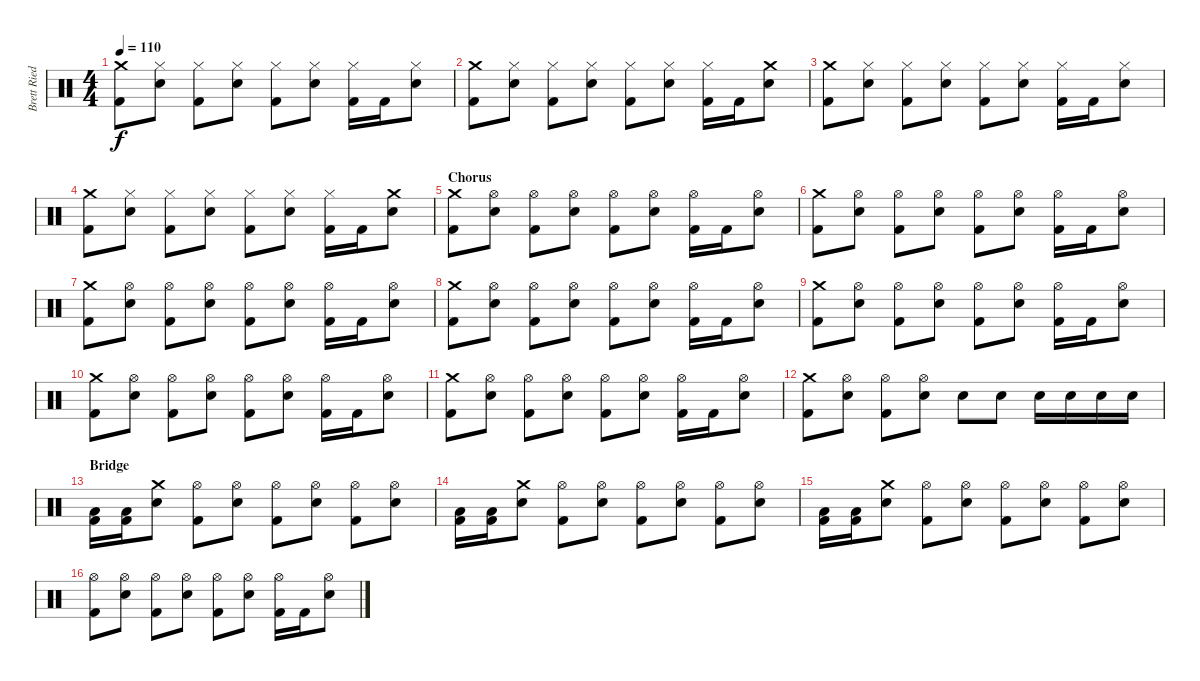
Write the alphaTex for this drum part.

\track ("Brett Ried" "Brett Ried") {instrument percussion}
\staff {score}
\articulation defaults
\ts (4 4)
\tempo 110
\clef neutral
\ks c
("Crash medium (hit)" "Kick (hit) 2").8{dy f} ("Hi-Hat (closed)" "Snare (hit) 2").8 ("Hi-Hat (closed)" "Kick (hit) 2").8 ("Hi-Hat (closed)" "Snare (hit) 2").8 ("Hi-Hat (closed)" "Kick (hit) 2").8 ("Hi-Hat (closed)" "Snare (hit) 2").8 ("Hi-Hat (closed)" "Kick (hit) 2").16 "Kick (hit) 2".16 ("Hi-Hat (closed)" "Snare (hit) 2").8 |
("Crash medium (hit)" "Kick (hit) 2").8 ("Hi-Hat (closed)" "Snare (hit) 2").8 ("Hi-Hat (closed)" "Kick (hit) 2").8 ("Hi-Hat (closed)" "Snare (hit) 2").8 ("Hi-Hat (closed)" "Kick (hit) 2").8 ("Hi-Hat (closed)" "Snare (hit) 2").8 ("Hi-Hat (closed)" "Kick (hit) 2").16 "Kick (hit) 2".16 ("Crash medium (hit)" "Snare (hit) 2").8 |
("Crash medium (hit)" "Kick (hit) 2").8 ("Hi-Hat (closed)" "Snare (hit) 2").8 ("Hi-Hat (closed)" "Kick (hit) 2").8 ("Hi-Hat (closed)" "Snare (hit) 2").8 ("Hi-Hat (closed)" "Kick (hit) 2").8 ("Hi-Hat (closed)" "Snare (hit) 2").8 ("Hi-Hat (closed)" "Kick (hit) 2").16 "Kick (hit) 2".16 ("Hi-Hat (closed)" "Snare (hit) 2").8 |
("Crash medium (hit)" "Kick (hit) 2").8 ("Hi-Hat (closed)" "Snare (hit) 2").8 ("Hi-Hat (closed)" "Kick (hit) 2").8 ("Hi-Hat (closed)" "Snare (hit) 2").8 ("Hi-Hat (closed)" "Kick (hit) 2").8 ("Hi-Hat (closed)" "Snare (hit) 2").8 ("Hi-Hat (closed)" "Kick (hit) 2").16 "Kick (hit) 2".16 ("Crash medium (hit)" "Snare (hit) 2").8 |
\section ("" "Chorus")
("Crash medium (hit)" "Kick (hit) 2").8 ("Hi-Hat (open)" "Snare (hit) 2").8 ("Hi-Hat (open)" "Kick (hit) 2").8 ("Hi-Hat (open)" "Snare (hit) 2").8 ("Hi-Hat (open)" "Kick (hit) 2").8 ("Hi-Hat (open)" "Snare (hit) 2").8 ("Hi-Hat (open)" "Kick (hit) 2").16 "Kick (hit) 2".16 ("Hi-Hat (open)" "Snare (hit) 2").8 |
("Crash medium (hit)" "Kick (hit) 2").8 ("Hi-Hat (open)" "Snare (hit) 2").8 ("Hi-Hat (open)" "Kick (hit) 2").8 ("Hi-Hat (open)" "Snare (hit) 2").8 ("Hi-Hat (open)" "Kick (hit) 2").8 ("Hi-Hat (open)" "Snare (hit) 2").8 ("Hi-Hat (open)" "Kick (hit) 2").16 "Kick (hit) 2".16 ("Hi-Hat (open)" "Snare (hit) 2").8 |
("Crash medium (hit)" "Kick (hit) 2").8 ("Hi-Hat (open)" "Snare (hit) 2").8 ("Hi-Hat (open)" "Kick (hit) 2").8 ("Hi-Hat (open)" "Snare (hit) 2").8 ("Hi-Hat (open)" "Kick (hit) 2").8 ("Hi-Hat (open)" "Snare (hit) 2").8 ("Hi-Hat (open)" "Kick (hit) 2").16 "Kick (hit) 2".16 ("Hi-Hat (open)" "Snare (hit) 2").8 |
("Crash medium (hit)" "Kick (hit) 2").8 ("Hi-Hat (open)" "Snare (hit) 2").8 ("Hi-Hat (open)" "Kick (hit) 2").8 ("Hi-Hat (open)" "Snare (hit) 2").8 ("Hi-Hat (open)" "Kick (hit) 2").8 ("Hi-Hat (open)" "Snare (hit) 2").8 ("Hi-Hat (open)" "Kick (hit) 2").16 "Kick (hit) 2".16 ("Hi-Hat (open)" "Snare (hit) 2").8 |
("Crash medium (hit)" "Kick (hit) 2").8 ("Hi-Hat (open)" "Snare (hit) 2").8 ("Hi-Hat (open)" "Kick (hit) 2").8 ("Hi-Hat (open)" "Snare (hit) 2").8 ("Hi-Hat (open)" "Kick (hit) 2").8 ("Hi-Hat (open)" "Snare (hit) 2").8 ("Hi-Hat (open)" "Kick (hit) 2").16 "Kick (hit) 2".16 ("Hi-Hat (open)" "Snare (hit) 2").8 |
("Crash medium (hit)" "Kick (hit) 2").8 ("Hi-Hat (open)" "Snare (hit) 2").8 ("Hi-Hat (open)" "Kick (hit) 2").8 ("Hi-Hat (open)" "Snare (hit) 2").8 ("Hi-Hat (open)" "Kick (hit) 2").8 ("Hi-Hat (open)" "Snare (hit) 2").8 ("Hi-Hat (open)" "Kick (hit) 2").16 "Kick (hit) 2".16 ("Hi-Hat (open)" "Snare (hit) 2").8 |
("Crash medium (hit)" "Kick (hit) 2").8 ("Hi-Hat (open)" "Snare (hit) 2").8 ("Hi-Hat (open)" "Kick (hit) 2").8 ("Hi-Hat (open)" "Snare (hit) 2").8 ("Hi-Hat (open)" "Kick (hit) 2").8 ("Hi-Hat (open)" "Snare (hit) 2").8 ("Hi-Hat (open)" "Kick (hit) 2").16 "Kick (hit) 2".16 ("Hi-Hat (open)" "Snare (hit) 2").8 |
("Crash medium (hit)" "Kick (hit) 2").8 ("Hi-Hat (open)" "Snare (hit) 2").8 ("Hi-Hat (open)" "Kick (hit) 2").8 ("Hi-Hat (open)" "Snare (hit) 2").8 "Snare (hit) 2".8 "Snare (hit) 2".8 "Snare (hit) 2".16 "Snare (hit) 2".16 "Snare (hit) 2".16 "Snare (hit) 2".16 |
\section ("" "Bridge")
("Low Floor Tom (hit)" "Kick (hit) 2").16 ("Low Floor Tom (hit)" "Kick (hit) 2").16 ("Crash medium (hit)" "Snare (hit) 2").8 ("Hi-Hat (open)" "Kick (hit) 2").8 ("Hi-Hat (open)" "Snare (hit) 2").8 ("Hi-Hat (open)" "Kick (hit) 2").8 ("Hi-Hat (open)" "Snare (hit) 2").8 ("Hi-Hat (open)" "Kick (hit) 2").8 ("Hi-Hat (open)" "Snare (hit) 2").8 |
("Low Floor Tom (hit)" "Kick (hit) 2").16 ("Low Floor Tom (hit)" "Kick (hit) 2").16 ("Crash medium (hit)" "Snare (hit) 2").8 ("Hi-Hat (open)" "Kick (hit) 2").8 ("Hi-Hat (open)" "Snare (hit) 2").8 ("Hi-Hat (open)" "Kick (hit) 2").8 ("Hi-Hat (open)" "Snare (hit) 2").8 ("Hi-Hat (open)" "Kick (hit) 2").8 ("Hi-Hat (open)" "Snare (hit) 2").8 |
("Low Floor Tom (hit)" "Kick (hit) 2").16 ("Low Floor Tom (hit)" "Kick (hit) 2").16 ("Crash medium (hit)" "Snare (hit) 2").8 ("Hi-Hat (open)" "Kick (hit) 2").8 ("Hi-Hat (open)" "Snare (hit) 2").8 ("Hi-Hat (open)" "Kick (hit) 2").8 ("Hi-Hat (open)" "Snare (hit) 2").8 ("Hi-Hat (open)" "Kick (hit) 2").8 ("Hi-Hat (open)" "Snare (hit) 2").8 |
("Hi-Hat (open)" "Kick (hit) 2").8 ("Hi-Hat (open)" "Snare (hit) 2").8 ("Hi-Hat (open)" "Kick (hit) 2").8 ("Hi-Hat (open)" "Snare (hit) 2").8 ("Hi-Hat (open)" "Kick (hit) 2").8 ("Hi-Hat (open)" "Snare (hit) 2").8 ("Hi-Hat (open)" "Kick (hit) 2").16 "Kick (hit) 2".16 ("Hi-Hat (open)" "Snare (hit) 2").8
